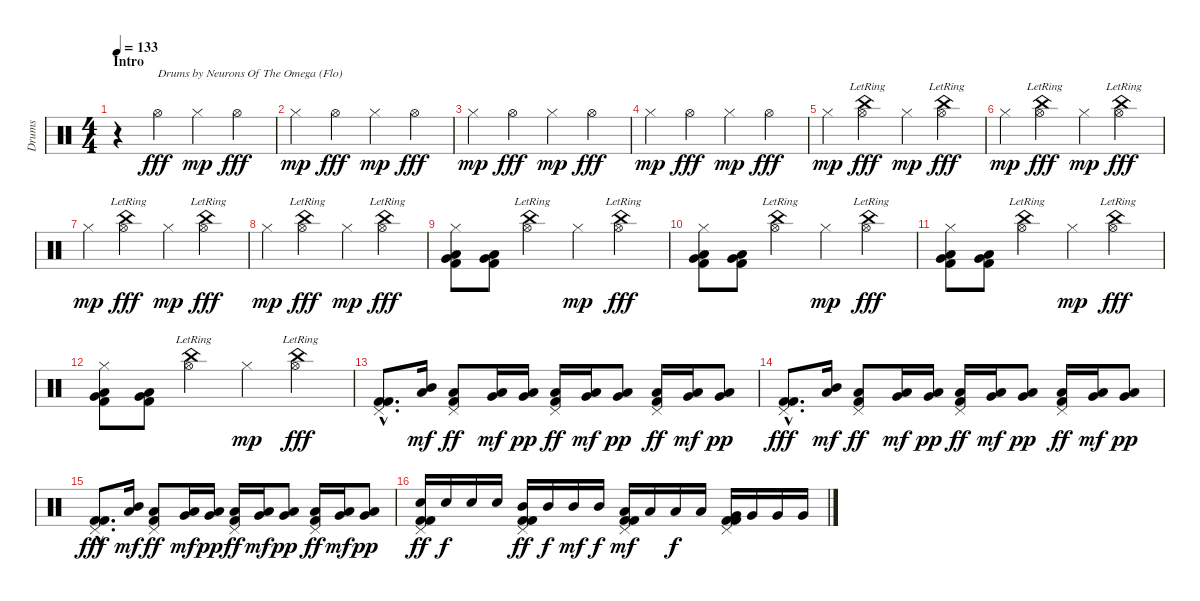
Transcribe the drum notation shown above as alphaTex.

\track ("Drums" "Drums") {instrument percussion}
\staff {score}
\articulation defaults
\ts (4 4)
\section ("" "Intro")
\tempo 133
\clef neutral
\ks c
r.4{dy fff} "Hi-Hat (open)".4{txt "Drums by Neurons Of The Omega (Flo)"} "Hi-Hat (closed)".4{dy mp} "Hi-Hat (open)".4{dy fff} |
"Hi-Hat (closed)".4{dy mp} "Hi-Hat (open)".4{dy fff} "Hi-Hat (closed)".4{dy mp} "Hi-Hat (open)".4{dy fff} |
"Hi-Hat (closed)".4{dy mp} "Hi-Hat (open)".4{dy fff} "Hi-Hat (closed)".4{dy mp} "Hi-Hat (open)".4{dy fff} |
"Hi-Hat (closed)".4{dy mp} "Hi-Hat (open)".4{dy fff} "Hi-Hat (closed)".4{dy mp} "Hi-Hat (open)".4{dy fff} |
"Hi-Hat (closed)".4{dy mp} ("China (hit)"{lr} "Hi-Hat (open)").4{dy fff} "Hi-Hat (closed)".4{dy mp} ("China (hit)"{lr} "Hi-Hat (open)").4{dy fff} |
"Hi-Hat (closed)".4{dy mp} ("China (hit)"{lr} "Hi-Hat (open)").4{dy fff} "Hi-Hat (closed)".4{dy mp} ("China (hit)"{lr} "Hi-Hat (open)").4{dy fff} |
"Hi-Hat (closed)".4{dy mp} ("China (hit)"{lr} "Hi-Hat (open)").4{dy fff} "Hi-Hat (closed)".4{dy mp} ("China (hit)"{lr} "Hi-Hat (open)").4{dy fff} |
"Hi-Hat (closed)".4{dy mp} ("China (hit)"{lr} "Hi-Hat (open)").4{dy fff} "Hi-Hat (closed)".4{dy mp} ("China (hit)"{lr} "Hi-Hat (open)").4{dy fff} |
("Hi-Hat (closed)" "Low Tom (hit)" "Very Low Tom (hit)" "Kick (hit) 2").8 ("Low Tom (hit)" "Very Low Tom (hit)" "Kick (hit) 2").8 ("China (hit)"{lr} "Hi-Hat (open)").4 "Hi-Hat (closed)".4{dy mp} ("China (hit)"{lr} "Hi-Hat (open)").4{dy fff} |
("Hi-Hat (closed)" "Low Tom (hit)" "Very Low Tom (hit)" "Kick (hit) 2").8 ("Low Tom (hit)" "Very Low Tom (hit)" "Kick (hit) 2").8 ("China (hit)"{lr} "Hi-Hat (open)").4 "Hi-Hat (closed)".4{dy mp} ("China (hit)"{lr} "Hi-Hat (open)").4{dy fff} |
("Hi-Hat (closed)" "Low Tom (hit)" "Very Low Tom (hit)" "Kick (hit) 2").8 ("Low Tom (hit)" "Very Low Tom (hit)" "Kick (hit) 2").8 ("China (hit)"{lr} "Hi-Hat (open)").4 "Hi-Hat (closed)".4{dy mp} ("China (hit)"{lr} "Hi-Hat (open)").4{dy fff} |
("Hi-Hat (closed)" "Low Tom (hit)" "Very Low Tom (hit)" "Kick (hit) 2").8 ("Low Tom (hit)" "Very Low Tom (hit)" "Kick (hit) 2").8 ("China (hit)"{lr} "Hi-Hat (open)").4 "Hi-Hat (closed)".4{dy mp} ("China (hit)"{lr} "Hi-Hat (open)").4{dy fff} |
("Pedal Hi-Hat (hit)"{hac} "Kick (hit) 2"{hac} "Kick (hit) 2"{hac}).8{d} ("Mid Tom (hit)" "Low Tom (hit)").16{dy mf} ("Pedal Hi-Hat (hit)" "Low Tom (hit)" "Kick (hit) 2").8{dy ff} ("Low Tom (hit)" "Very Low Tom (hit)").16{dy mf} ("Low Tom (hit)" "Very Low Tom (hit)").16{dy pp} ("Pedal Hi-Hat (hit)" "Low Tom (hit)" "Kick (hit) 2").16{dy ff} ("Low Tom (hit)" "Very Low Tom (hit)").16{dy mf} ("Low Tom (hit)" "Very Low Tom (hit)").8{dy pp} ("Pedal Hi-Hat (hit)" "Low Tom (hit)" "Kick (hit) 2").16{dy ff} ("Low Tom (hit)" "Very Low Tom (hit)").16{dy mf} ("Low Tom (hit)" "Very Low Tom (hit)").8{dy pp} |
("Pedal Hi-Hat (hit)"{hac} "Kick (hit) 2"{hac} "Kick (hit) 2"{hac}).8{d dy fff} ("Mid Tom (hit)" "Low Tom (hit)").16{dy mf} ("Pedal Hi-Hat (hit)" "Low Tom (hit)" "Kick (hit) 2").8{dy ff} ("Low Tom (hit)" "Very Low Tom (hit)").16{dy mf} ("Low Tom (hit)" "Very Low Tom (hit)").16{dy pp} ("Pedal Hi-Hat (hit)" "Low Tom (hit)" "Kick (hit) 2").16{dy ff} ("Low Tom (hit)" "Very Low Tom (hit)").16{dy mf} ("Low Tom (hit)" "Very Low Tom (hit)").8{dy pp} ("Pedal Hi-Hat (hit)" "Low Tom (hit)" "Kick (hit) 2").16{dy ff} ("Low Tom (hit)" "Very Low Tom (hit)").16{dy mf} ("Low Tom (hit)" "Very Low Tom (hit)").8{dy pp} |
("Pedal Hi-Hat (hit)"{hac} "Kick (hit) 2"{hac} "Kick (hit) 2"{hac}).8{d dy fff} ("Mid Tom (hit)" "Low Tom (hit)").16{dy mf} ("Pedal Hi-Hat (hit)" "Low Tom (hit)" "Kick (hit) 2").8{dy ff} ("Low Tom (hit)" "Very Low Tom (hit)").16{dy mf} ("Low Tom (hit)" "Very Low Tom (hit)").16{dy pp} ("Pedal Hi-Hat (hit)" "Low Tom (hit)" "Kick (hit) 2").16{dy ff} ("Low Tom (hit)" "Very Low Tom (hit)").16{dy mf} ("Low Tom (hit)" "Very Low Tom (hit)").8{dy pp} ("Pedal Hi-Hat (hit)" "Low Tom (hit)" "Kick (hit) 2").16{dy ff} ("Low Tom (hit)" "Very Low Tom (hit)").16{dy mf} ("Low Tom (hit)" "Very Low Tom (hit)").8{dy pp} |
("Pedal Hi-Hat (hit)" "Electric Snare (hit)" "Kick (hit) 2" "Kick (hit) 2").16{dy ff} "Electric Snare (hit)".16{dy f} "Electric Snare (hit)".16 "Electric Snare (hit)".16 ("Pedal Hi-Hat (hit)" "Mid Tom (hit)" "Kick (hit) 2" "Kick (hit) 2").16{dy ff} "Mid Tom (hit)".16{dy f} "Mid Tom (hit)".16{dy mf} "Mid Tom (hit)".16{dy f} ("Pedal Hi-Hat (hit)" "Low Tom (hit)" "Kick (hit) 2" "Kick (hit) 2").16{dy mf} "Low Tom (hit)".16 "Low Tom (hit)".16{dy f} "Low Tom (hit)".16 ("Pedal Hi-Hat (hit)" "Very Low Tom (hit)" "Kick (hit) 2" "Kick (hit) 2").16 "Very Low Tom (hit)".16 "Very Low Tom (hit)".16 "Very Low Tom (hit)".16
